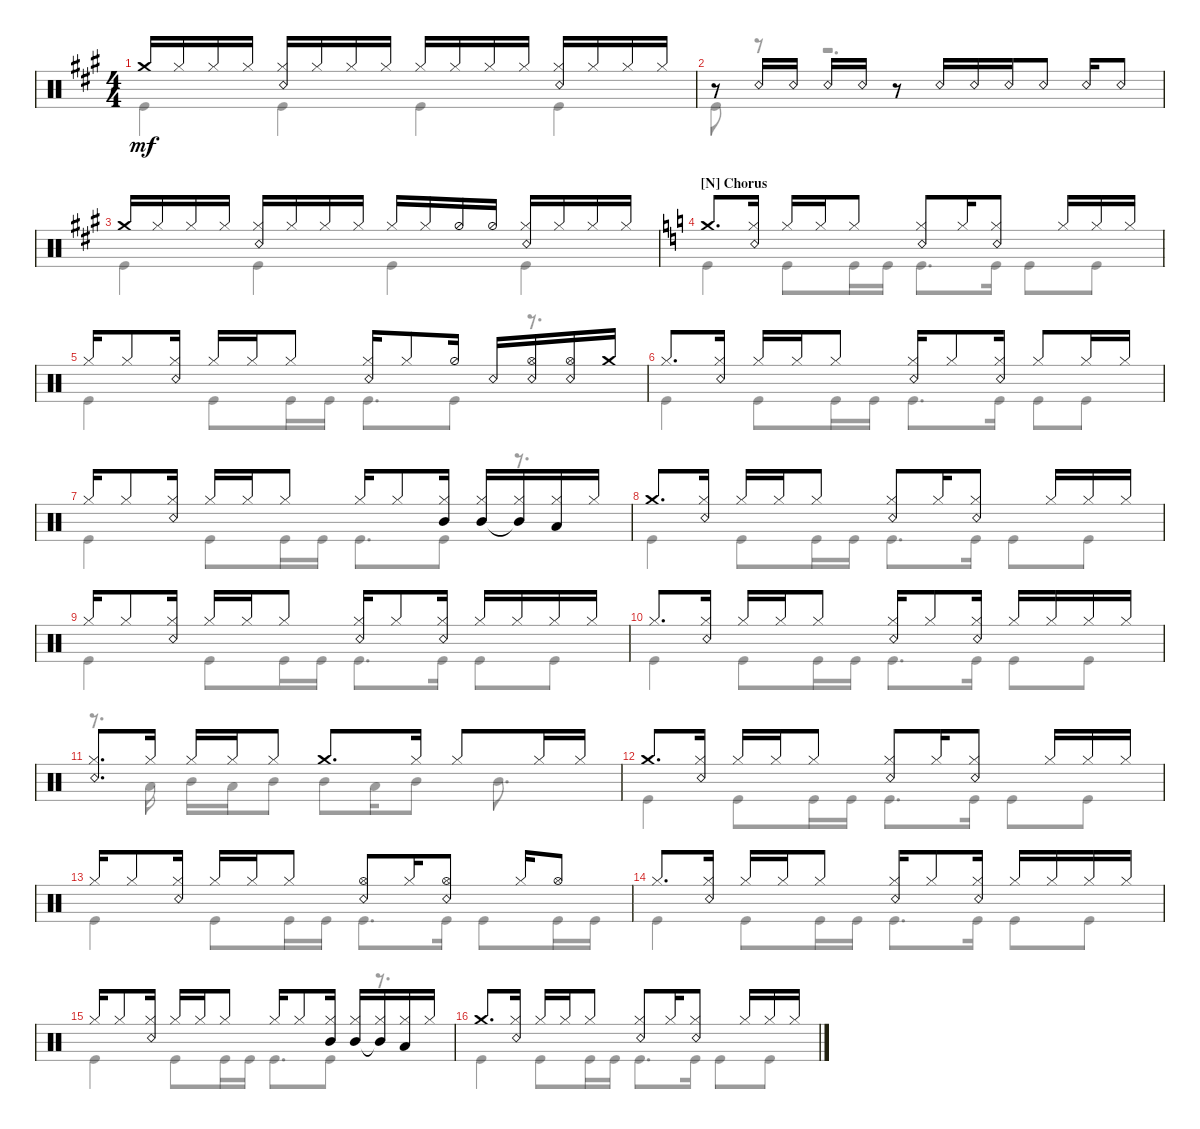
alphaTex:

\defaultSystemsLayout 4
\bracketExtendMode groupsimilarinstruments
\singleTrackTrackNamePolicy hidden
\multiTrackTrackNamePolicy hidden
\firstSystemTrackNameOrientation horizontal
\otherSystemsTrackNameOrientation horizontal
\track ("Максим Удалов" "Drums") {instrument percussion}
\staff {score}
\articulation defaults
\voice
\ts (4 4)
\tempo (110 hide)
\clef neutral
\scale
1.02648
\ks a "Crash medium (hit)".16{dy mf} "Hi-Hat (closed)".16 "Hi-Hat (closed)".16 "Hi-Hat (closed)".16
("Hi-Hat (closed)" "Snare (rim shot)").16 "Hi-Hat (closed)".16 "Hi-Hat (closed)".16 "Hi-Hat (closed)".16 "Hi-Hat (closed)".16 "Hi-Hat (closed)".16 "Hi-Hat (closed)".16 "Hi-Hat (closed)".16 ("Hi-Hat (closed)" "Snare (rim shot)").16 "Hi-Hat (closed)".16 "Hi-Hat (closed)".16 "Hi-Hat (closed)".16 |
\scale
0.973518 r.8 "Snare (rim shot)".16 "Snare (rim shot)".16 "Snare (rim shot)".16 "Snare (rim shot)".16 r.8 "Snare (rim shot)".16 "Snare (rim shot)".16 "Snare (rim shot)".16 "Snare (rim shot)".8 "Snare (rim shot)".16 "Snare (rim shot)".8 |
\scale
1.02648 "Crash medium (hit)".16 "Hi-Hat (closed)".16 "Hi-Hat (closed)".16 "Hi-Hat (closed)".16 ("Hi-Hat (closed)" "Snare (rim shot)").16 "Hi-Hat (closed)".16 "Hi-Hat (closed)".16 "Hi-Hat (closed)".16 "Hi-Hat (closed)".16 "Hi-Hat (closed)".16 "Hi-Hat (half)".16 "Hi-Hat (half)".16 ("Hi-Hat (closed)" "Snare (rim shot)").16 "Hi-Hat (closed)".16 "Hi-Hat (closed)".16 "Hi-Hat (closed)".16 |
\section ("N" "Chorus")
\scale
0.973518
\ks c "Crash medium (hit)".8{d}
("Hi-Hat (closed)" "Snare (rim shot)").16 "Hi-Hat (closed)".16 "Hi-Hat (closed)".16 "Hi-Hat (closed)".8 ("Hi-Hat (closed)" "Snare (rim shot)").8 "Hi-Hat (closed)".16 ("Hi-Hat (closed)" "Snare (rim shot)").8 "Hi-Hat (closed)".16 "Hi-Hat (closed)".16 "Hi-Hat (closed)".16 |
\scale
1.02648 "Hi-Hat (closed)".16 "Hi-Hat (closed)".8 ("Hi-Hat (closed)" "Snare (rim shot)").16 "Hi-Hat (closed)".16 "Hi-Hat (closed)".16 "Hi-Hat (closed)".8 ("Hi-Hat (closed)" "Snare (rim shot)").16 "Hi-Hat (closed)".8 "Hi-Hat (half)".16 "Snare (rim shot)".16 ("Snare (rim shot)" "Hi-Hat (open)").16 ("Snare (rim shot)" "Hi-Hat (open)").16 "Crash medium (hit)".16 |
\scale
0.973518 "Hi-Hat (closed)".8{d} ("Snare (rim shot)" "Hi-Hat (closed)").16 "Hi-Hat (closed)".16 "Hi-Hat (closed)".16 "Hi-Hat (closed)".8 ("Hi-Hat (closed)" "Snare (rim shot)").16 "Hi-Hat (closed)".8 ("Hi-Hat (closed)" "Snare (rim shot)").16 "Hi-Hat (closed)".8 "Hi-Hat (closed)".16 "Hi-Hat (closed)".16 |
\scale
1.02648 "Hi-Hat (closed)".16 "Hi-Hat (closed)".8 ("Snare (rim shot)" "Hi-Hat (closed)").16 "Hi-Hat (closed)".16 "Hi-Hat (closed)".16 "Hi-Hat (closed)".8 "Hi-Hat (closed)".16 "Hi-Hat (closed)".8 ("Hi-Hat (closed)" "Mid Tom (hit)").16 ("Hi-Hat (closed)" "Mid Tom (hit)").16 ("Hi-Hat (closed)" "Mid Tom (hit)"{t}).16 ("Hi-Hat (closed)" "Low Tom (hit)").16 "Hi-Hat (closed)".16 |
\scale
0.973518 "Crash medium (hit)".8{d} ("Hi-Hat (closed)" "Snare (rim shot)").16 "Hi-Hat (closed)".16 "Hi-Hat (closed)".16 "Hi-Hat (closed)".8 ("Hi-Hat (closed)" "Snare (rim shot)").8 "Hi-Hat (closed)".16 ("Hi-Hat (closed)" "Snare (rim shot)").8 "Hi-Hat (closed)".16 "Hi-Hat (closed)".16 "Hi-Hat (closed)".16 |
\scale
1.02648 "Hi-Hat (closed)".16 "Hi-Hat (closed)".8 ("Hi-Hat (closed)" "Snare (rim shot)").16 "Hi-Hat (closed)".16 "Hi-Hat (closed)".16 "Hi-Hat (closed)".8 ("Hi-Hat (closed)" "Snare (rim shot)").16 "Hi-Hat (closed)".8 ("Hi-Hat (closed)" "Snare (rim shot)").16 "Hi-Hat (closed)".16 "Hi-Hat (closed)".16 "Hi-Hat (closed)".16 "Hi-Hat (closed)".16 |
\scale
0.973518 "Hi-Hat (closed)".8{d} ("Snare (rim shot)" "Hi-Hat (closed)").16 "Hi-Hat (closed)".16 "Hi-Hat (closed)".16 "Hi-Hat (closed)".8 ("Hi-Hat (closed)" "Snare (rim shot)").16 "Hi-Hat (closed)".8 ("Hi-Hat (closed)" "Snare (rim shot)").16 "Hi-Hat (closed)".16 "Hi-Hat (closed)".16 "Hi-Hat (closed)".16 "Hi-Hat (closed)".16 |
\scale
1.02648 ("Hi-Hat (closed)" "Snare (rim shot)").8{d} "Hi-Hat (closed)".16 "Hi-Hat (closed)".16 "Hi-Hat (closed)".16 "Hi-Hat (closed)".8 "Crash medium (hit)".8{d} "Hi-Hat (closed)".16 "Hi-Hat (closed)".8 "Hi-Hat (closed)".16 "Hi-Hat (closed)".16 |
\scale
0.973518 "Crash medium (hit)".8{d} ("Hi-Hat (closed)" "Snare (rim shot)").16 "Hi-Hat (closed)".16 "Hi-Hat (closed)".16 "Hi-Hat (closed)".8 ("Hi-Hat (closed)" "Snare (rim shot)").8 "Hi-Hat (closed)".16 ("Hi-Hat (closed)" "Snare (rim shot)").8 "Hi-Hat (closed)".16 "Hi-Hat (closed)".16 "Hi-Hat (closed)".16 |
\scale
1.02648 "Hi-Hat (closed)".16 "Hi-Hat (closed)".8 ("Hi-Hat (closed)" "Snare (rim shot)").16 "Hi-Hat (closed)".16 "Hi-Hat (closed)".16 "Hi-Hat (closed)".8 ("Snare (rim shot)" "Hi-Hat (open)").8 "Hi-Hat (closed)".16 ("Snare (rim shot)" "Hi-Hat (open)").8 "Hi-Hat (closed)".16 "Hi-Hat (open)".8 |
\scale
0.973518 "Hi-Hat (closed)".8{d} ("Snare (rim shot)" "Hi-Hat (closed)").16 "Hi-Hat (closed)".16 "Hi-Hat (closed)".16 "Hi-Hat (closed)".8 ("Hi-Hat (closed)" "Snare (rim shot)").16 "Hi-Hat (closed)".8 ("Hi-Hat (closed)" "Snare (rim shot)").16 "Hi-Hat (closed)".16 "Hi-Hat (closed)".16 "Hi-Hat (closed)".16 "Hi-Hat (closed)".16 |
\scale
1.02648 "Hi-Hat (closed)".16 "Hi-Hat (closed)".8 ("Snare (rim shot)" "Hi-Hat (closed)").16 "Hi-Hat (closed)".16 "Hi-Hat (closed)".16 "Hi-Hat (closed)".8 "Hi-Hat (closed)".16 "Hi-Hat (closed)".8 ("Hi-Hat (closed)" "Mid Tom (hit)").16 ("Hi-Hat (closed)" "Mid Tom (hit)").16 ("Hi-Hat (closed)" "Mid Tom (hit)"{t}).16 ("Hi-Hat (closed)" "Low Tom (hit)").16 "Hi-Hat (closed)".16 |
\scale
0.973518 "Crash medium (hit)".8{d} ("Hi-Hat (closed)" "Snare (rim shot)").16 "Hi-Hat (closed)".16 "Hi-Hat (closed)".16 "Hi-Hat (closed)".8 ("Hi-Hat (closed)" "Snare (rim shot)").8 "Hi-Hat (closed)".16 ("Hi-Hat (closed)" "Snare (rim shot)").8 "Hi-Hat (closed)".16 "Hi-Hat (closed)".16 "Hi-Hat (closed)".16
\voice
\clef neutral
\ottava regular
\simile none
\scale
1.02648
\ks a "Kick (hit)".4{dy mf} "Kick (hit)".4 "Kick (hit)".4 "Kick (hit)".4
|
\scale
0.973518 "Kick (hit)".8 r.8 r.2{d} |
\scale
1.02648 "Kick (hit)".4 "Kick (hit)".4 "Kick (hit)".4 "Kick (hit)".4 |
\scale
0.973518
\ks c "Kick (hit)".4 "Kick (hit)".8 "Kick (hit)".16 "Kick (hit)".16 "Kick (hit)".8{d} "Kick (hit)".16 "Kick (hit)".8 "Kick (hit)".8
|
\scale
1.02648 "Kick (hit)".4 "Kick (hit)".8 "Kick (hit)".16 "Kick (hit)".16 "Kick (hit)".8{d} "Kick (hit)".8 r.8{d} |
\scale
0.973518 "Kick (hit)".4 "Kick (hit)".8 "Kick (hit)".16 "Kick (hit)".16 "Kick (hit)".8{d} "Kick (hit)".16 "Kick (hit)".8 "Kick (hit)".8 |
\scale
1.02648 "Kick (hit)".4 "Kick (hit)".8 "Kick (hit)".16 "Kick (hit)".16 "Kick (hit)".8{d} "Kick (hit)".8 r.8{d} |
\scale
0.973518 "Kick (hit)".4 "Kick (hit)".8 "Kick (hit)".16 "Kick (hit)".16 "Kick (hit)".8{d} "Kick (hit)".16 "Kick (hit)".8 "Kick (hit)".8 |
\scale
1.02648 "Kick (hit)".4 "Kick (hit)".8 "Kick (hit)".16 "Kick (hit)".16 "Kick (hit)".8{d} "Kick (hit)".16 "Kick (hit)".8 "Kick (hit)".8 |
\scale
0.973518 "Kick (hit)".4 "Kick (hit)".8 "Kick (hit)".16 "Kick (hit)".16 "Kick (hit)".8{d} "Kick (hit)".16 "Kick (hit)".8 "Kick (hit)".8 |
\scale
1.02648 r.8{d} "Low Tom (hit)".16 "Mid Tom (hit)".16 "Low Tom (hit)".16 "Mid Tom (hit)".8 "Mid Tom (hit)".8 "Low Tom (hit)".16 "Mid Tom (hit)".8 "Mid Tom (hit)".8{d} |
\scale
0.973518 "Kick (hit)".4 "Kick (hit)".8 "Kick (hit)".16 "Kick (hit)".16 "Kick (hit)".8{d} "Kick (hit)".16 "Kick (hit)".8 "Kick (hit)".8 |
\scale
1.02648 "Kick (hit)".4 "Kick (hit)".8 "Kick (hit)".16 "Kick (hit)".16 "Kick (hit)".8{d} "Kick (hit)".16 "Kick (hit)".8 "Kick (hit)".16 "Kick (hit)".16 |
\scale
0.973518 "Kick (hit)".4 "Kick (hit)".8 "Kick (hit)".16 "Kick (hit)".16 "Kick (hit)".8{d} "Kick (hit)".16 "Kick (hit)".8 "Kick (hit)".8 |
\scale
1.02648 "Kick (hit)".4 "Kick (hit)".8 "Kick (hit)".16 "Kick (hit)".16 "Kick (hit)".8{d} "Kick (hit)".8 r.8{d} |
\scale
0.973518 "Kick (hit)".4 "Kick (hit)".8 "Kick (hit)".16 "Kick (hit)".16 "Kick (hit)".8{d} "Kick (hit)".16 "Kick (hit)".8 "Kick (hit)".8
